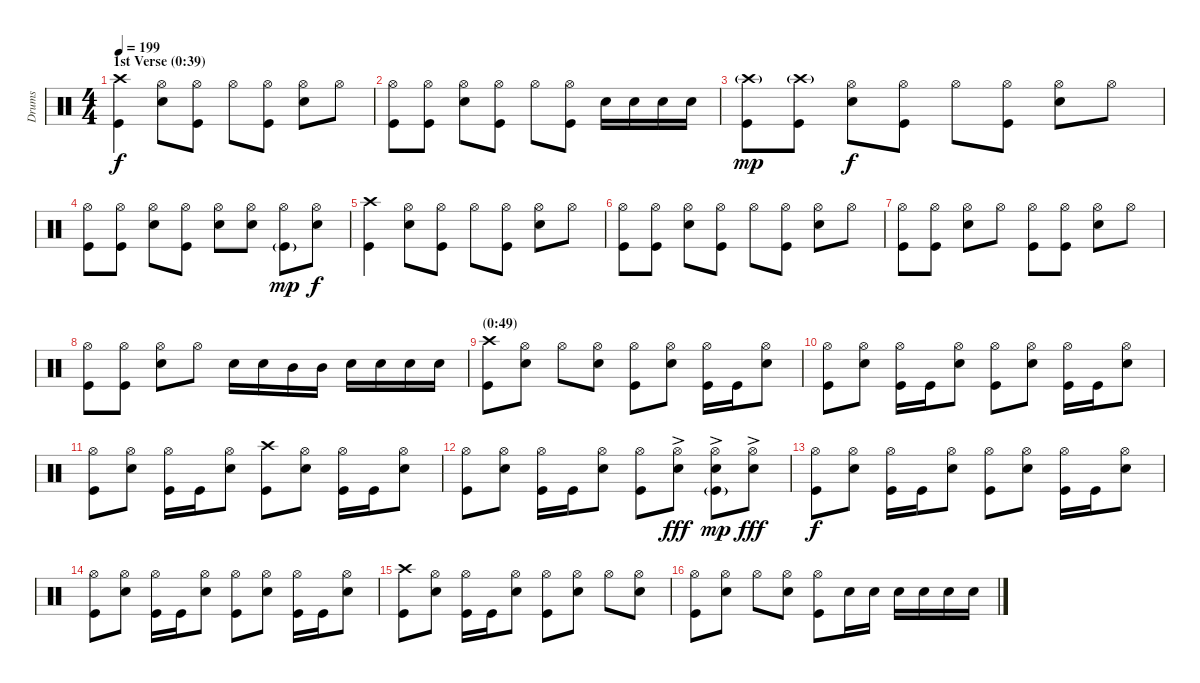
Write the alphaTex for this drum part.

\track ("Drums" "Drums") {instrument percussion}
\staff {score}
\articulation defaults
\ts (4 4)
\section ("" "1st Verse (0:39)")
\tempo 199
\clef neutral
\ks c
("Crash high (hit)" "Kick (hit)").4{dy f} ("Hi-Hat (open)" "Snare (hit) 2").8 ("Hi-Hat (open)" "Kick (hit)").8 "Hi-Hat (open)".8 ("Hi-Hat (open)" "Kick (hit)").8 ("Hi-Hat (open)" "Snare (hit) 2").8 "Hi-Hat (open)".8 |
("Hi-Hat (open)" "Kick (hit)").8 ("Hi-Hat (open)" "Kick (hit)").8 ("Hi-Hat (open)" "Snare (hit) 2").8 ("Hi-Hat (open)" "Kick (hit)").8 "Hi-Hat (open)".8 ("Hi-Hat (open)" "Kick (hit)").8 "Snare (hit) 2".16 "Snare (hit) 2".16 "Snare (hit) 2".16 "Snare (hit) 2".16 |
("Crash high (hit)"{g} "Kick (hit)").8{dy mp} ("Crash high (hit)"{g} "Kick (hit)").8 ("Hi-Hat (open)" "Snare (hit) 2").8{dy f} ("Hi-Hat (open)" "Kick (hit)").8 "Hi-Hat (open)".8 ("Hi-Hat (open)" "Kick (hit)").8 ("Hi-Hat (open)" "Snare (hit) 2").8 "Hi-Hat (open)".8 |
("Hi-Hat (open)" "Kick (hit)").8 ("Hi-Hat (open)" "Kick (hit)").8 ("Hi-Hat (open)" "Snare (hit) 2").8 ("Hi-Hat (open)" "Kick (hit)").8 ("Hi-Hat (open)" "Snare (hit) 2").8 ("Hi-Hat (open)" "Snare (hit) 2").8 ("Hi-Hat (open)" "Kick (hit)"{g}).8{dy mp} ("Hi-Hat (open)" "Snare (hit) 2").8{dy f} |
("Crash high (hit)" "Kick (hit)").4 ("Hi-Hat (open)" "Snare (hit) 2").8 ("Hi-Hat (open)" "Kick (hit)").8 "Hi-Hat (open)".8 ("Hi-Hat (open)" "Kick (hit)").8 ("Hi-Hat (open)" "Snare (hit) 2").8 "Hi-Hat (open)".8 |
("Hi-Hat (open)" "Kick (hit)").8 ("Hi-Hat (open)" "Kick (hit)").8 ("Hi-Hat (open)" "Snare (hit) 2").8 ("Hi-Hat (open)" "Kick (hit)").8 "Hi-Hat (open)".8 ("Hi-Hat (open)" "Kick (hit)").8 ("Hi-Hat (open)" "Snare (hit) 2").8 "Hi-Hat (open)".8 |
("Hi-Hat (open)" "Kick (hit)").8 ("Hi-Hat (open)" "Kick (hit)").8 ("Hi-Hat (open)" "Snare (hit) 2").8 "Hi-Hat (open)".8 ("Hi-Hat (open)" "Kick (hit)").8 ("Hi-Hat (open)" "Kick (hit)").8 ("Hi-Hat (open)" "Snare (hit) 2").8 "Hi-Hat (open)".8 |
("Hi-Hat (open)" "Kick (hit)").8 ("Hi-Hat (open)" "Kick (hit)").8 ("Hi-Hat (open)" "Snare (hit) 2").8 "Hi-Hat (open)".8 "Snare (hit) 2".16 "Snare (hit) 2".16 "Mid Tom (hit)".16 "Mid Tom (hit)".16 "Snare (hit) 2".16 "Snare (hit) 2".16 "Snare (hit) 2".16 "Snare (hit) 2".16 |
\section ("" "(0:49)")
("Crash high (hit)" "Kick (hit)").8 ("Hi-Hat (open)" "Snare (hit) 2").8 "Hi-Hat (open)".8 ("Hi-Hat (open)" "Snare (hit) 2").8 ("Hi-Hat (open)" "Kick (hit)").8 ("Hi-Hat (open)" "Snare (hit) 2").8 ("Hi-Hat (open)" "Kick (hit)").16 "Kick (hit)".16 ("Hi-Hat (open)" "Snare (hit) 2").8 |
("Hi-Hat (open)" "Kick (hit)").8 ("Hi-Hat (open)" "Snare (hit) 2").8 ("Hi-Hat (open)" "Kick (hit)").16 "Kick (hit)".16 ("Hi-Hat (open)" "Snare (hit) 2").8 ("Hi-Hat (open)" "Kick (hit)").8 ("Hi-Hat (open)" "Snare (hit) 2").8 ("Hi-Hat (open)" "Kick (hit)").16 "Kick (hit)".16 ("Hi-Hat (open)" "Snare (hit) 2").8 |
("Hi-Hat (open)" "Kick (hit)").8 ("Hi-Hat (open)" "Snare (hit) 2").8 ("Hi-Hat (open)" "Kick (hit)").16 "Kick (hit)".16 ("Hi-Hat (open)" "Snare (hit) 2").8 ("Crash high (hit)" "Kick (hit)").8 ("Hi-Hat (open)" "Snare (hit) 2").8 ("Hi-Hat (open)" "Kick (hit)").16 "Kick (hit)".16 ("Hi-Hat (open)" "Snare (hit) 2").8 |
("Hi-Hat (open)" "Kick (hit)").8 ("Hi-Hat (open)" "Snare (hit) 2").8 ("Hi-Hat (open)" "Kick (hit)").16 "Kick (hit)".16 ("Hi-Hat (open)" "Snare (hit) 2").8 ("Hi-Hat (open)" "Kick (hit)").8 ("Hi-Hat (open)"{ac} "Snare (hit) 2"{ac}).8{dy fff} ("Hi-Hat (open)"{ac} "Snare (hit) 2"{ac} "Kick (hit)"{g}).8{dy mp} ("Hi-Hat (open)"{ac} "Snare (hit) 2"{ac}).8{dy fff} |
("Hi-Hat (open)" "Kick (hit)").8{dy f} ("Hi-Hat (open)" "Snare (hit) 2").8 ("Hi-Hat (open)" "Kick (hit)").16 "Kick (hit)".16 ("Hi-Hat (open)" "Snare (hit) 2").8 ("Hi-Hat (open)" "Kick (hit)").8 ("Hi-Hat (open)" "Snare (hit) 2").8 ("Hi-Hat (open)" "Kick (hit)").16 "Kick (hit)".16 ("Hi-Hat (open)" "Snare (hit) 2").8 |
("Hi-Hat (open)" "Kick (hit)").8 ("Hi-Hat (open)" "Snare (hit) 2").8 ("Hi-Hat (open)" "Kick (hit)").16 "Kick (hit)".16 ("Hi-Hat (open)" "Snare (hit) 2").8 ("Hi-Hat (open)" "Kick (hit)").8 ("Hi-Hat (open)" "Snare (hit) 2").8 ("Hi-Hat (open)" "Kick (hit)").16 "Kick (hit)".16 ("Hi-Hat (open)" "Snare (hit) 2").8 |
("Crash high (hit)" "Kick (hit)").8 ("Hi-Hat (open)" "Snare (hit) 2").8 ("Hi-Hat (open)" "Kick (hit)").16 "Kick (hit)".16 ("Hi-Hat (open)" "Snare (hit) 2").8 ("Hi-Hat (open)" "Kick (hit)").8 ("Hi-Hat (open)" "Snare (hit) 2").8 "Hi-Hat (open)".8 ("Hi-Hat (open)" "Snare (hit) 2").8 |
("Hi-Hat (open)" "Kick (hit)").8 ("Hi-Hat (open)" "Snare (hit) 2").8 "Hi-Hat (open)".8 ("Hi-Hat (open)" "Snare (hit) 2").8 ("Hi-Hat (open)" "Kick (hit)").8 "Snare (hit) 2".16 "Snare (hit) 2".16 "Snare (hit) 2".16 "Snare (hit) 2".16 "Snare (hit) 2".16 "Snare (hit) 2".16
